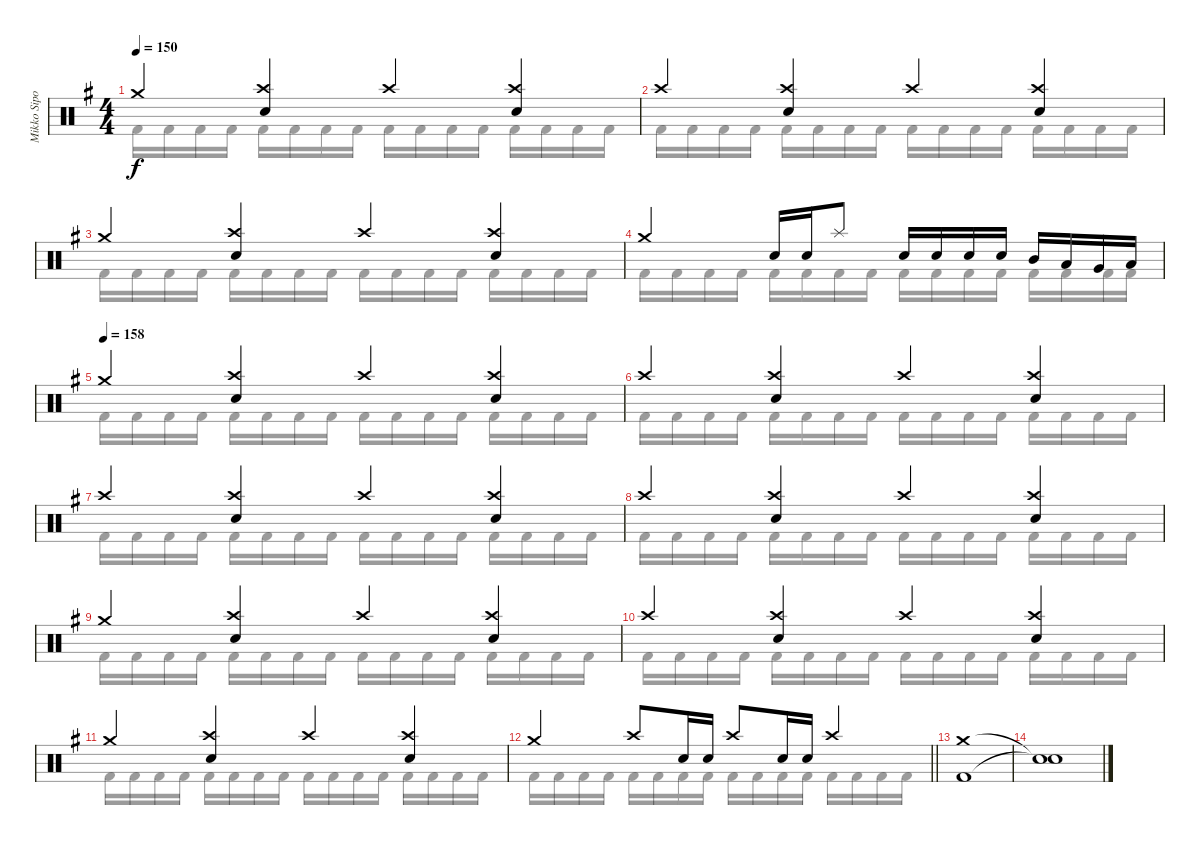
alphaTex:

\track ("Mikko Sipola (drums)" "Mikko Sipo") {instrument percussion}
\staff {score}
\articulation defaults
\voice
\ts (4 4)
\tempo 150
\clef neutral
\ks eminor "Crash medium (hit)".4{dy f}
("Crash high (hit)" "Electric Snare (hit)").4 "Crash high (hit)".4 ("Crash high (hit)" "Electric Snare (hit)").4 |
"Crash high (hit)".4 ("Crash high (hit)" "Electric Snare (hit)").4 "Crash high (hit)".4 ("Crash high (hit)" "Electric Snare (hit)").4 |
"Crash medium (hit)".4 ("Crash high (hit)" "Electric Snare (hit)").4 "Crash high (hit)".4 ("Crash high (hit)" "Electric Snare (hit)").4 |
"Crash medium (hit)".4 "Electric Snare (hit)".16 "Electric Snare (hit)".16 "Splash (hit)".8 "Electric Snare (hit)".16 "Electric Snare (hit)".16 "Electric Snare (hit)".16 "Electric Snare (hit)".16 "Mid Tom (hit)".16 "Low Tom (hit)".16 "Very Low Tom (hit)".16 "Low Floor Tom (hit)".16 |
\tempo (158)
"Crash medium (hit)".4 ("Crash high (hit)" "Electric Snare (hit)").4 "Crash high (hit)".4 ("Crash high (hit)" "Electric Snare (hit)").4 |
"Crash high (hit)".4 ("Crash high (hit)" "Electric Snare (hit)").4 "Crash high (hit)".4 ("Crash high (hit)" "Electric Snare (hit)").4 |
"Crash high (hit)".4 ("Crash high (hit)" "Electric Snare (hit)").4 "Crash high (hit)".4 ("Crash high (hit)" "Electric Snare (hit)").4 |
"Crash high (hit)".4 ("Crash high (hit)" "Electric Snare (hit)").4 "Crash high (hit)".4 ("Crash high (hit)" "Electric Snare (hit)").4 |
"Crash medium (hit)".4 ("Crash high (hit)" "Electric Snare (hit)").4 "Crash high (hit)".4 ("Crash high (hit)" "Electric Snare (hit)").4 |
"Crash high (hit)".4 ("Crash high (hit)" "Electric Snare (hit)").4 "Crash high (hit)".4 ("Crash high (hit)" "Electric Snare (hit)").4 |
"Crash medium (hit)".4 ("Crash high (hit)" "Electric Snare (hit)").4 "Crash high (hit)".4 ("Crash high (hit)" "Electric Snare (hit)").4 |
\barLineRight lightlight "Crash medium (hit)".4 "Crash high (hit)".8 "Electric Snare (hit)".16 "Electric Snare (hit)".16 "Crash high (hit)".8 "Electric Snare (hit)".16 "Electric Snare (hit)".16 "Crash high (hit)".4
|
("Crash medium (hit)" "Kick (hit) 2").1 |
("Snare (hit)"{t} "Snare (hit)"{t}).1
\voice
\clef neutral
\ottava regular
\simile none
\ks eminor "Kick (hit) 2".16{dy f} "Kick (hit) 2".16 "Kick (hit) 2".16 "Kick (hit) 2".16 "Kick (hit) 2".16 "Kick (hit) 2".16 "Kick (hit) 2".16 "Kick (hit) 2".16 "Kick (hit) 2".16 "Kick (hit) 2".16 "Kick (hit) 2".16 "Kick (hit) 2".16 "Kick (hit) 2".16 "Kick (hit) 2".16 "Kick (hit) 2".16 "Kick (hit) 2".16
|
"Kick (hit) 2".16 "Kick (hit) 2".16 "Kick (hit) 2".16 "Kick (hit) 2".16 "Kick (hit) 2".16 "Kick (hit) 2".16 "Kick (hit) 2".16 "Kick (hit) 2".16 "Kick (hit) 2".16 "Kick (hit) 2".16 "Kick (hit) 2".16 "Kick (hit) 2".16 "Kick (hit) 2".16 "Kick (hit) 2".16 "Kick (hit) 2".16 "Kick (hit) 2".16 |
"Kick (hit) 2".16 "Kick (hit) 2".16 "Kick (hit) 2".16 "Kick (hit) 2".16 "Kick (hit) 2".16 "Kick (hit) 2".16 "Kick (hit) 2".16 "Kick (hit) 2".16 "Kick (hit) 2".16 "Kick (hit) 2".16 "Kick (hit) 2".16 "Kick (hit) 2".16 "Kick (hit) 2".16 "Kick (hit) 2".16 "Kick (hit) 2".16 "Kick (hit) 2".16 |
"Kick (hit) 2".16 "Kick (hit) 2".16 "Kick (hit) 2".16 "Kick (hit) 2".16 "Kick (hit) 2".16 "Kick (hit) 2".16 "Kick (hit) 2".16 "Kick (hit) 2".16 "Kick (hit) 2".16 "Kick (hit) 2".16 "Kick (hit) 2".16 "Kick (hit) 2".16 "Kick (hit) 2".16 "Kick (hit) 2".16 "Kick (hit) 2".16 "Kick (hit) 2".16 |
"Kick (hit) 2".16 "Kick (hit) 2".16 "Kick (hit) 2".16 "Kick (hit) 2".16 "Kick (hit) 2".16 "Kick (hit) 2".16 "Kick (hit) 2".16 "Kick (hit) 2".16 "Kick (hit) 2".16 "Kick (hit) 2".16 "Kick (hit) 2".16 "Kick (hit) 2".16 "Kick (hit) 2".16 "Kick (hit) 2".16 "Kick (hit) 2".16 "Kick (hit) 2".16 |
"Kick (hit) 2".16 "Kick (hit) 2".16 "Kick (hit) 2".16 "Kick (hit) 2".16 "Kick (hit) 2".16 "Kick (hit) 2".16 "Kick (hit) 2".16 "Kick (hit) 2".16 "Kick (hit) 2".16 "Kick (hit) 2".16 "Kick (hit) 2".16 "Kick (hit) 2".16 "Kick (hit) 2".16 "Kick (hit) 2".16 "Kick (hit) 2".16 "Kick (hit) 2".16 |
"Kick (hit) 2".16 "Kick (hit) 2".16 "Kick (hit) 2".16 "Kick (hit) 2".16 "Kick (hit) 2".16 "Kick (hit) 2".16 "Kick (hit) 2".16 "Kick (hit) 2".16 "Kick (hit) 2".16 "Kick (hit) 2".16 "Kick (hit) 2".16 "Kick (hit) 2".16 "Kick (hit) 2".16 "Kick (hit) 2".16 "Kick (hit) 2".16 "Kick (hit) 2".16 |
"Kick (hit) 2".16 "Kick (hit) 2".16 "Kick (hit) 2".16 "Kick (hit) 2".16 "Kick (hit) 2".16 "Kick (hit) 2".16 "Kick (hit) 2".16 "Kick (hit) 2".16 "Kick (hit) 2".16 "Kick (hit) 2".16 "Kick (hit) 2".16 "Kick (hit) 2".16 "Kick (hit) 2".16 "Kick (hit) 2".16 "Kick (hit) 2".16 "Kick (hit) 2".16 |
"Kick (hit) 2".16 "Kick (hit) 2".16 "Kick (hit) 2".16 "Kick (hit) 2".16 "Kick (hit) 2".16 "Kick (hit) 2".16 "Kick (hit) 2".16 "Kick (hit) 2".16 "Kick (hit) 2".16 "Kick (hit) 2".16 "Kick (hit) 2".16 "Kick (hit) 2".16 "Kick (hit) 2".16 "Kick (hit) 2".16 "Kick (hit) 2".16 "Kick (hit) 2".16 |
"Kick (hit) 2".16 "Kick (hit) 2".16 "Kick (hit) 2".16 "Kick (hit) 2".16 "Kick (hit) 2".16 "Kick (hit) 2".16 "Kick (hit) 2".16 "Kick (hit) 2".16 "Kick (hit) 2".16 "Kick (hit) 2".16 "Kick (hit) 2".16 "Kick (hit) 2".16 "Kick (hit) 2".16 "Kick (hit) 2".16 "Kick (hit) 2".16 "Kick (hit) 2".16 |
"Kick (hit) 2".16 "Kick (hit) 2".16 "Kick (hit) 2".16 "Kick (hit) 2".16 "Kick (hit) 2".16 "Kick (hit) 2".16 "Kick (hit) 2".16 "Kick (hit) 2".16 "Kick (hit) 2".16 "Kick (hit) 2".16 "Kick (hit) 2".16 "Kick (hit) 2".16 "Kick (hit) 2".16 "Kick (hit) 2".16 "Kick (hit) 2".16 "Kick (hit) 2".16 |
\barLineRight lightlight "Kick (hit) 2".16 "Kick (hit) 2".16 "Kick (hit) 2".16 "Kick (hit) 2".16 "Kick (hit) 2".16 "Kick (hit) 2".16 "Kick (hit) 2".16 "Kick (hit) 2".16 "Kick (hit) 2".16 "Kick (hit) 2".16 "Kick (hit) 2".16 "Kick (hit) 2".16 "Kick (hit) 2".16 "Kick (hit) 2".16 "Kick (hit) 2".16 "Kick (hit) 2".16
|
|
